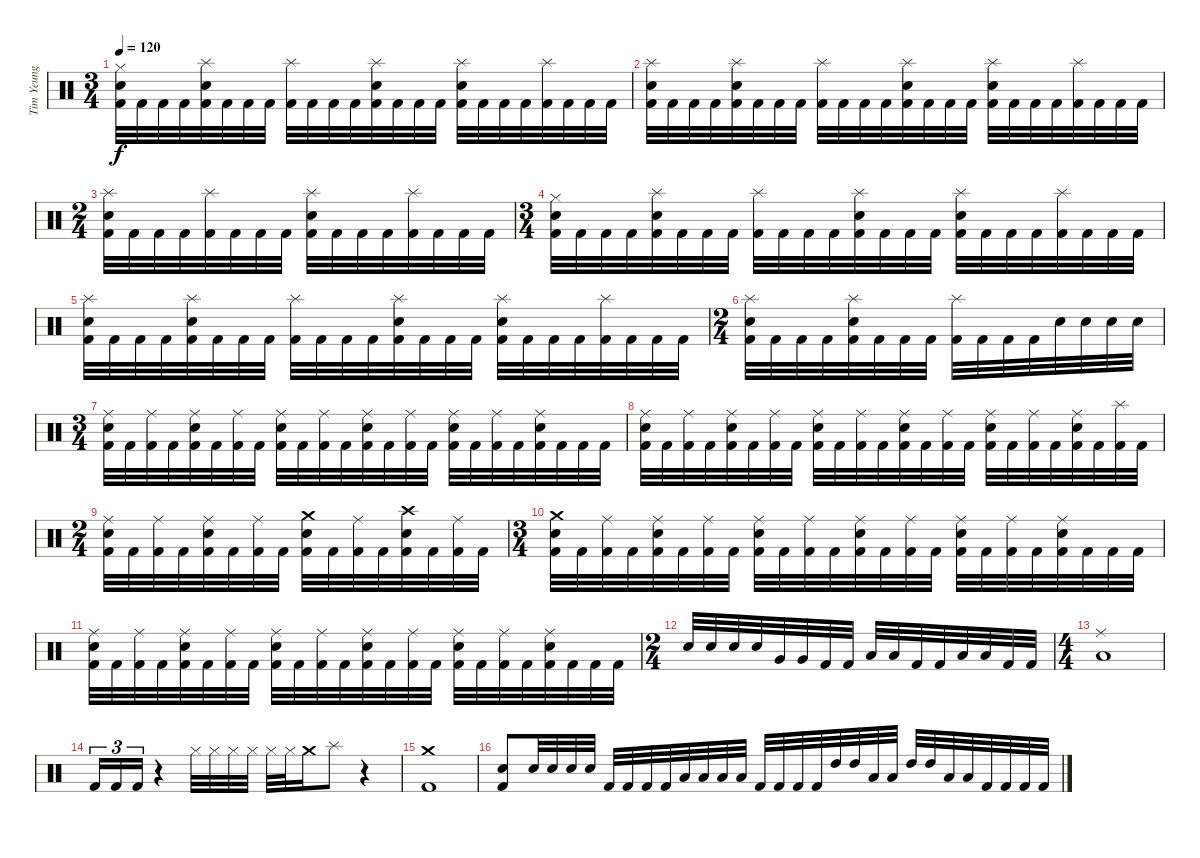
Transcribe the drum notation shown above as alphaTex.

\track ("Tim Yeung" "Tim Yeung") {instrument percussion}
\staff {score}
\articulation defaults
\ts (3 4)
\tempo 120
\clef neutral
\ks c
("Hi-Hat (closed)" "Electric Snare (hit)" "Kick (hit) 2").32{dy f} "Kick (hit) 2".32 "Kick (hit) 2".32 "Kick (hit) 2".32 ("Splash (hit)" "Electric Snare (hit)" "Kick (hit) 2").32 "Kick (hit) 2".32 "Kick (hit) 2".32 "Kick (hit) 2".32 ("Splash (hit)" "Kick (hit) 2").32 "Kick (hit) 2".32 "Kick (hit) 2".32 "Kick (hit) 2".32 ("Splash (hit)" "Electric Snare (hit)" "Kick (hit) 2").32 "Kick (hit) 2".32 "Kick (hit) 2".32 "Kick (hit) 2".32 ("Splash (hit)" "Electric Snare (hit)" "Kick (hit) 2").32 "Kick (hit) 2".32 "Kick (hit) 2".32 "Kick (hit) 2".32 ("Splash (hit)" "Kick (hit) 2").32 "Kick (hit) 2".32 "Kick (hit) 2".32 "Kick (hit) 2".32 |
("Splash (hit)" "Electric Snare (hit)" "Kick (hit) 2").32 "Kick (hit) 2".32 "Kick (hit) 2".32 "Kick (hit) 2".32 ("Splash (hit)" "Electric Snare (hit)" "Kick (hit) 2").32 "Kick (hit) 2".32 "Kick (hit) 2".32 "Kick (hit) 2".32 ("Splash (hit)" "Kick (hit) 2").32 "Kick (hit) 2".32 "Kick (hit) 2".32 "Kick (hit) 2".32 ("Splash (hit)" "Electric Snare (hit)" "Kick (hit) 2").32 "Kick (hit) 2".32 "Kick (hit) 2".32 "Kick (hit) 2".32 ("Splash (hit)" "Electric Snare (hit)" "Kick (hit) 2").32 "Kick (hit) 2".32 "Kick (hit) 2".32 "Kick (hit) 2".32 ("Splash (hit)" "Kick (hit) 2").32 "Kick (hit) 2".32 "Kick (hit) 2".32 "Kick (hit) 2".32 |
\ts (2 4)
("Splash (hit)" "Electric Snare (hit)" "Kick (hit) 2").32 "Kick (hit) 2".32 "Kick (hit) 2".32 "Kick (hit) 2".32 ("Splash (hit)" "Kick (hit) 2").32 "Kick (hit) 2".32 "Kick (hit) 2".32 "Kick (hit) 2".32 ("Splash (hit)" "Electric Snare (hit)" "Kick (hit) 2").32 "Kick (hit) 2".32 "Kick (hit) 2".32 "Kick (hit) 2".32 ("Splash (hit)" "Kick (hit) 2").32 "Kick (hit) 2".32 "Kick (hit) 2".32 "Kick (hit) 2".32 |
\ts (3 4)
("Hi-Hat (closed)" "Electric Snare (hit)" "Kick (hit) 2").32 "Kick (hit) 2".32 "Kick (hit) 2".32 "Kick (hit) 2".32 ("Splash (hit)" "Electric Snare (hit)" "Kick (hit) 2").32 "Kick (hit) 2".32 "Kick (hit) 2".32 "Kick (hit) 2".32 ("Splash (hit)" "Kick (hit) 2").32 "Kick (hit) 2".32 "Kick (hit) 2".32 "Kick (hit) 2".32 ("Splash (hit)" "Electric Snare (hit)" "Kick (hit) 2").32 "Kick (hit) 2".32 "Kick (hit) 2".32 "Kick (hit) 2".32 ("Splash (hit)" "Electric Snare (hit)" "Kick (hit) 2").32 "Kick (hit) 2".32 "Kick (hit) 2".32 "Kick (hit) 2".32 ("Splash (hit)" "Kick (hit) 2").32 "Kick (hit) 2".32 "Kick (hit) 2".32 "Kick (hit) 2".32 |
("Splash (hit)" "Electric Snare (hit)" "Kick (hit) 2").32 "Kick (hit) 2".32 "Kick (hit) 2".32 "Kick (hit) 2".32 ("Splash (hit)" "Electric Snare (hit)" "Kick (hit) 2").32 "Kick (hit) 2".32 "Kick (hit) 2".32 "Kick (hit) 2".32 ("Splash (hit)" "Kick (hit) 2").32 "Kick (hit) 2".32 "Kick (hit) 2".32 "Kick (hit) 2".32 ("Splash (hit)" "Electric Snare (hit)" "Kick (hit) 2").32 "Kick (hit) 2".32 "Kick (hit) 2".32 "Kick (hit) 2".32 ("Splash (hit)" "Electric Snare (hit)" "Kick (hit) 2").32 "Kick (hit) 2".32 "Kick (hit) 2".32 "Kick (hit) 2".32 ("Splash (hit)" "Kick (hit) 2").32 "Kick (hit) 2".32 "Kick (hit) 2".32 "Kick (hit) 2".32 |
\ts (2 4)
("Splash (hit)" "Electric Snare (hit)" "Kick (hit) 2").32 "Kick (hit) 2".32 "Kick (hit) 2".32 "Kick (hit) 2".32 ("Splash (hit)" "Electric Snare (hit)" "Kick (hit) 2").32 "Kick (hit) 2".32 "Kick (hit) 2".32 "Kick (hit) 2".32 ("Splash (hit)" "Kick (hit) 2").32 "Kick (hit) 2".32 "Kick (hit) 2".32 "Kick (hit) 2".32 "Electric Snare (hit)".32 "Electric Snare (hit)".32 "Electric Snare (hit)".32 "Electric Snare (hit)".32 |
\ts (3 4)
("Ride (middle)" "Electric Snare (hit)" "Kick (hit) 2").32 "Kick (hit) 2".32 ("Ride (middle)" "Kick (hit) 2").32 "Kick (hit) 2".32 ("Ride (middle)" "Electric Snare (hit)" "Kick (hit) 2").32 "Kick (hit) 2".32 ("Ride (middle)" "Kick (hit) 2").32 "Kick (hit) 2".32 ("Ride (middle)" "Electric Snare (hit)" "Kick (hit) 2").32 "Kick (hit) 2".32 ("Ride (middle)" "Kick (hit) 2").32 "Kick (hit) 2".32 ("Ride (middle)" "Electric Snare (hit)" "Kick (hit) 2").32 "Kick (hit) 2".32 ("Ride (middle)" "Kick (hit) 2").32 "Kick (hit) 2".32 ("Ride (middle)" "Electric Snare (hit)" "Kick (hit) 2").32 "Kick (hit) 2".32 ("Ride (middle)" "Kick (hit) 2").32 "Kick (hit) 2".32 ("Ride (middle)" "Electric Snare (hit)" "Kick (hit) 2").32 "Kick (hit) 2".32 "Kick (hit) 2".32 "Kick (hit) 2".32 |
("Ride (middle)" "Electric Snare (hit)" "Kick (hit) 2").32 "Kick (hit) 2".32 ("Ride (middle)" "Kick (hit) 2").32 "Kick (hit) 2".32 ("Ride (middle)" "Electric Snare (hit)" "Kick (hit) 2").32 "Kick (hit) 2".32 ("Ride (middle)" "Kick (hit) 2").32 "Kick (hit) 2".32 ("Ride (middle)" "Electric Snare (hit)" "Kick (hit) 2").32 "Kick (hit) 2".32 ("Ride (middle)" "Kick (hit) 2").32 "Kick (hit) 2".32 ("Ride (middle)" "Electric Snare (hit)" "Kick (hit) 2").32 "Kick (hit) 2".32 ("Ride (middle)" "Kick (hit) 2").32 "Kick (hit) 2".32 ("Ride (middle)" "Electric Snare (hit)" "Kick (hit) 2").32 "Kick (hit) 2".32 ("Ride (middle)" "Kick (hit) 2").32 "Kick (hit) 2".32 ("Ride (middle)" "Electric Snare (hit)" "Kick (hit) 2").32 "Kick (hit) 2".32 ("Splash (hit)" "Kick (hit) 2").32 "Kick (hit) 2".32 |
\ts (2 4)
("Ride (middle)" "Electric Snare (hit)" "Kick (hit) 2").32 "Kick (hit) 2".32 ("Ride (middle)" "Kick (hit) 2").32 "Kick (hit) 2".32 ("Ride (middle)" "Electric Snare (hit)" "Kick (hit) 2").32 "Kick (hit) 2".32 ("Ride (middle)" "Kick (hit) 2").32 "Kick (hit) 2".32 ("Crash medium (hit)" "Electric Snare (hit)" "Kick (hit) 2").32 "Kick (hit) 2".32 ("Ride (middle)" "Kick (hit) 2").32 "Kick (hit) 2".32 ("Crash high (hit)" "Electric Snare (hit)" "Kick (hit) 2").32 "Kick (hit) 2".32 ("Ride (middle)" "Kick (hit) 2").32 "Kick (hit) 2".32 |
\ts (3 4)
("Crash medium (hit)" "Electric Snare (hit)" "Kick (hit) 2").32 "Kick (hit) 2".32 ("Ride (middle)" "Kick (hit) 2").32 "Kick (hit) 2".32 ("Ride (middle)" "Electric Snare (hit)" "Kick (hit) 2").32 "Kick (hit) 2".32 ("Ride (middle)" "Kick (hit) 2").32 "Kick (hit) 2".32 ("Ride (middle)" "Electric Snare (hit)" "Kick (hit) 2").32 "Kick (hit) 2".32 ("Ride (middle)" "Kick (hit) 2").32 "Kick (hit) 2".32 ("Ride (middle)" "Electric Snare (hit)" "Kick (hit) 2").32 "Kick (hit) 2".32 ("Ride (middle)" "Kick (hit) 2").32 "Kick (hit) 2".32 ("Ride (middle)" "Electric Snare (hit)" "Kick (hit) 2").32 "Kick (hit) 2".32 ("Ride (middle)" "Kick (hit) 2").32 "Kick (hit) 2".32 ("Ride (middle)" "Electric Snare (hit)" "Kick (hit) 2").32 "Kick (hit) 2".32 "Kick (hit) 2".32 "Kick (hit) 2".32 |
("Ride (middle)" "Electric Snare (hit)" "Kick (hit) 2").32 "Kick (hit) 2".32 ("Ride (middle)" "Kick (hit) 2").32 "Kick (hit) 2".32 ("Ride (middle)" "Electric Snare (hit)" "Kick (hit) 2").32 "Kick (hit) 2".32 ("Ride (middle)" "Kick (hit) 2").32 "Kick (hit) 2".32 ("Ride (middle)" "Electric Snare (hit)" "Kick (hit) 2").32 "Kick (hit) 2".32 ("Ride (middle)" "Kick (hit) 2").32 "Kick (hit) 2".32 ("Ride (middle)" "Electric Snare (hit)" "Kick (hit) 2").32 "Kick (hit) 2".32 ("Ride (middle)" "Kick (hit) 2").32 "Kick (hit) 2".32 ("Ride (middle)" "Electric Snare (hit)" "Kick (hit) 2").32 "Kick (hit) 2".32 ("Ride (middle)" "Kick (hit) 2").32 "Kick (hit) 2".32 ("Ride (middle)" "Electric Snare (hit)" "Kick (hit) 2").32 "Kick (hit) 2".32 "Kick (hit) 2".32 "Kick (hit) 2".32 |
\ts (2 4)
"Electric Snare (hit)".32 "Electric Snare (hit)".32 "Electric Snare (hit)".32 "Electric Snare (hit)".32 "Very Low Tom (hit)".32 "Very Low Tom (hit)".32 "Kick (hit) 2".32 "Kick (hit) 2".32 "Low Floor Tom (hit)".32 "Low Floor Tom (hit)".32 "Kick (hit) 2".32 "Kick (hit) 2".32 "Low Floor Tom (hit)".32 "Low Floor Tom (hit)".32 "Kick (hit) 2".32 "Kick (hit) 2".32 |
\ts (4 4)
("Ride (middle)" "Low Floor Tom (hit)").1 |
"Kick (hit) 2".16{tu (3 2)} "Kick (hit) 2".16{tu (3 2)} "Kick (hit) 2".16{tu (3 2)} r.4 "Hi-Hat (closed)".32 "Hi-Hat (closed)".32 "Hi-Hat (closed)".32 "Hi-Hat (closed)".32 "Hi-Hat (closed)".32 "Hi-Hat (closed)".32 "Crash medium (hit)".16 "Splash (hit)".8 r.4 |
("Crash medium (hit)" "Kick (hit) 2").1 |
("Electric Snare (hit)" "Kick (hit) 2").8 "Electric Snare (hit)".32 "Electric Snare (hit)".32 "Electric Snare (hit)".32 "Electric Snare (hit)".32 "Kick (hit) 2".32 "Kick (hit) 2".32 "Kick (hit) 2".32 "Kick (hit) 2".32 "Low Tom (hit)".32 "Low Tom (hit)".32 "Low Tom (hit)".32 "Low Tom (hit)".32 "Kick (hit) 2".32 "Kick (hit) 2".32 "Kick (hit) 2".32 "Kick (hit) 2".32 "High Tom (hit)".32 "High Tom (hit)".32 "Low Tom (hit)".32 "Low Tom (hit)".32 "High Tom (hit)".32 "High Tom (hit)".32 "Low Tom (hit)".32 "Low Tom (hit)".32 "Kick (hit) 2".32 "Kick (hit) 2".32 "Kick (hit) 2".32 "Kick (hit) 2".32
